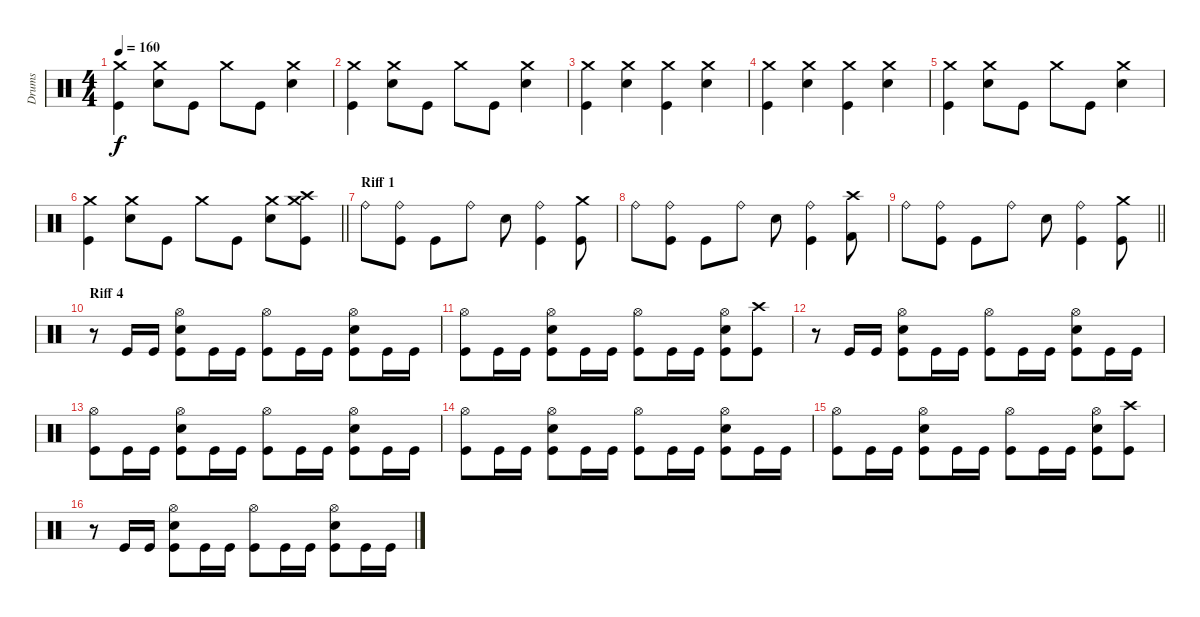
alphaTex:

\track ("Drums" "Drums") {instrument percussion}
\staff {score}
\articulation defaults
\ts (4 4)
\tempo 160
\clef neutral
\ks c
("Kick (hit)" "Crash medium (hit)").4{dy f} ("Crash medium (hit)" "Electric Snare (hit)").8 "Kick (hit)".8 "Crash medium (hit)".8 "Kick (hit)".8 ("Crash medium (hit)" "Electric Snare (hit)").4 |
("Kick (hit)" "Crash medium (hit)").4 ("Crash medium (hit)" "Electric Snare (hit)").8 "Kick (hit)".8 "Crash medium (hit)".8 "Kick (hit)".8 ("Crash medium (hit)" "Electric Snare (hit)").4 |
("Kick (hit)" "Crash medium (hit)").4 ("Crash medium (hit)" "Electric Snare (hit)").4 ("Kick (hit)" "Crash medium (hit)").4 ("Crash medium (hit)" "Electric Snare (hit)").4 |
("Kick (hit)" "Crash medium (hit)").4 ("Crash medium (hit)" "Electric Snare (hit)").4 ("Kick (hit)" "Crash medium (hit)").4 ("Crash medium (hit)" "Electric Snare (hit)").4 |
("Kick (hit)" "Crash medium (hit)").4 ("Crash medium (hit)" "Electric Snare (hit)").8 "Kick (hit)".8 "Crash medium (hit)".8 "Kick (hit)".8 ("Crash medium (hit)" "Electric Snare (hit)").4 |
\barLineRight lightlight
("Kick (hit)" "Crash medium (hit)").4 ("Crash medium (hit)" "Electric Snare (hit)").8 "Kick (hit)".8 "Crash medium (hit)".8 "Kick (hit)".8 ("Crash medium (hit)" "Electric Snare (hit)").8 ("Kick (hit)" "Crash high (hit)" "Crash medium (hit)").8 |
\section ("" "Riff 1")
"Ride (bell)".8 ("Kick (hit)" "Ride (bell)").8 "Kick (hit)".8 "Ride (bell)".8 "Electric Snare (hit)".8 ("Kick (hit)" "Ride (bell)").4 ("Kick (hit)" "Crash medium (hit)").8 |
"Ride (bell)".8 ("Kick (hit)" "Ride (bell)").8 "Kick (hit)".8 "Ride (bell)".8 "Electric Snare (hit)".8 ("Kick (hit)" "Ride (bell)").4 ("Kick (hit) 2" "Crash high (hit)").8 |
\barLineRight lightlight "Ride (bell)".8
("Kick (hit)" "Ride (bell)").8 "Kick (hit)".8 "Ride (bell)".8 "Electric Snare (hit)".8 ("Kick (hit)" "Ride (bell)").4 ("Kick (hit)" "Crash medium (hit)").8 |
\section ("" "Riff 4")
r.8 "Kick (hit)".16 "Kick (hit)".16 ("Hi-Hat (open)" "Electric Snare (hit)" "Kick (hit)").8 "Kick (hit)".16 "Kick (hit)".16 ("Hi-Hat (open)" "Kick (hit)").8 "Kick (hit)".16 "Kick (hit)".16 ("Hi-Hat (open)" "Electric Snare (hit)" "Kick (hit)").8 "Kick (hit)".16 "Kick (hit)".16 |
("Hi-Hat (open)" "Kick (hit)").8 "Kick (hit)".16 "Kick (hit)".16 ("Hi-Hat (open)" "Electric Snare (hit)" "Kick (hit)").8 "Kick (hit)".16 "Kick (hit)".16 ("Hi-Hat (open)" "Kick (hit)").8 "Kick (hit)".16 "Kick (hit)".16 ("Hi-Hat (open)" "Electric Snare (hit)" "Kick (hit)").8 ("Crash high (hit)" "Kick (hit)").8 |
r.8 "Kick (hit)".16 "Kick (hit)".16 ("Hi-Hat (open)" "Electric Snare (hit)" "Kick (hit)").8 "Kick (hit)".16 "Kick (hit)".16 ("Hi-Hat (open)" "Kick (hit)").8 "Kick (hit)".16 "Kick (hit)".16 ("Hi-Hat (open)" "Electric Snare (hit)" "Kick (hit)").8 "Kick (hit)".16 "Kick (hit)".16 |
("Hi-Hat (open)" "Kick (hit)").8 "Kick (hit)".16 "Kick (hit)".16 ("Hi-Hat (open)" "Electric Snare (hit)" "Kick (hit)").8 "Kick (hit)".16 "Kick (hit)".16 ("Hi-Hat (open)" "Kick (hit)").8 "Kick (hit)".16 "Kick (hit)".16 ("Hi-Hat (open)" "Electric Snare (hit)" "Kick (hit)").8 "Kick (hit)".16 "Kick (hit)".16 |
("Hi-Hat (open)" "Kick (hit)").8 "Kick (hit)".16 "Kick (hit)".16 ("Hi-Hat (open)" "Electric Snare (hit)" "Kick (hit)").8 "Kick (hit)".16 "Kick (hit)".16 ("Hi-Hat (open)" "Kick (hit)").8 "Kick (hit)".16 "Kick (hit)".16 ("Hi-Hat (open)" "Electric Snare (hit)" "Kick (hit)").8 "Kick (hit)".16 "Kick (hit)".16 |
("Hi-Hat (open)" "Kick (hit)").8 "Kick (hit)".16 "Kick (hit)".16 ("Hi-Hat (open)" "Electric Snare (hit)" "Kick (hit)").8 "Kick (hit)".16 "Kick (hit)".16 ("Hi-Hat (open)" "Kick (hit)").8 "Kick (hit)".16 "Kick (hit)".16 ("Hi-Hat (open)" "Electric Snare (hit)" "Kick (hit)").8 ("Crash high (hit)" "Kick (hit)").8 |
r.8 "Kick (hit)".16 "Kick (hit)".16 ("Hi-Hat (open)" "Electric Snare (hit)" "Kick (hit)").8 "Kick (hit)".16 "Kick (hit)".16 ("Hi-Hat (open)" "Kick (hit)").8 "Kick (hit)".16 "Kick (hit)".16 ("Hi-Hat (open)" "Electric Snare (hit)" "Kick (hit)").8 "Kick (hit)".16 "Kick (hit)".16
